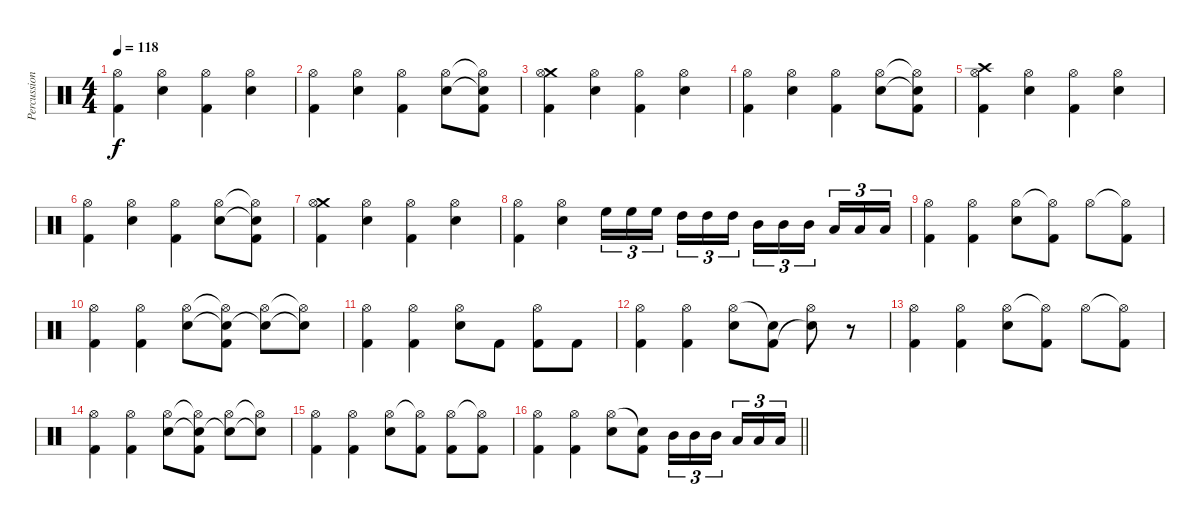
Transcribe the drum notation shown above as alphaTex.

\track ("Percussion" "Percussion") {instrument percussion}
\staff {score}
\articulation defaults
\ts (4 4)
\tempo 118
\clef neutral
\ks c
("Hi-Hat (open)" "Kick (hit) 2").4{dy f} ("Hi-Hat (open)" "Electric Snare (hit)").4 ("Hi-Hat (open)" "Kick (hit) 2").4 ("Hi-Hat (open)" "Electric Snare (hit)").4 |
("Hi-Hat (open)" "Kick (hit) 2").4 ("Hi-Hat (open)" "Electric Snare (hit)").4 ("Hi-Hat (open)" "Kick (hit) 2").4 ("Hi-Hat (open)" "Electric Snare (hit)").8 ("Hi-Hat (open)"{t} "Electric Snare (hit)"{t} "Kick (hit) 2").8 |
("Crash medium (hit)" "Hi-Hat (open)" "Kick (hit) 2").4 ("Hi-Hat (open)" "Electric Snare (hit)").4 ("Hi-Hat (open)" "Kick (hit) 2").4 ("Hi-Hat (open)" "Electric Snare (hit)").4 |
("Hi-Hat (open)" "Kick (hit) 2").4 ("Hi-Hat (open)" "Electric Snare (hit)").4 ("Hi-Hat (open)" "Kick (hit) 2").4 ("Hi-Hat (open)" "Electric Snare (hit)").8 ("Hi-Hat (open)"{t} "Electric Snare (hit)"{t} "Kick (hit) 2").8 |
("Crash high (hit)" "Hi-Hat (open)" "Kick (hit) 2").4 ("Hi-Hat (open)" "Electric Snare (hit)").4 ("Hi-Hat (open)" "Kick (hit) 2").4 ("Hi-Hat (open)" "Electric Snare (hit)").4 |
("Hi-Hat (open)" "Kick (hit) 2").4 ("Hi-Hat (open)" "Electric Snare (hit)").4 ("Hi-Hat (open)" "Kick (hit) 2").4 ("Hi-Hat (open)" "Electric Snare (hit)").8 ("Hi-Hat (open)"{t} "Electric Snare (hit)"{t} "Kick (hit) 2").8 |
("Crash medium (hit)" "Hi-Hat (open)" "Kick (hit) 2").4 ("Hi-Hat (open)" "Electric Snare (hit)").4 ("Hi-Hat (open)" "Kick (hit) 2").4 ("Hi-Hat (open)" "Electric Snare (hit)").4 |
("Hi-Hat (open)" "Kick (hit) 2").4 ("Hi-Hat (open)" "Electric Snare (hit)").4 "High Floor Tom (hit)".16{tu (3 2)} "High Floor Tom (hit)".16{tu (3 2)} "High Floor Tom (hit)".16{tu (3 2) beam splitsecondary} "High Tom (hit)".16{tu (3 2)} "High Tom (hit)".16{tu (3 2)} "High Tom (hit)".16{tu (3 2)} "Mid Tom (hit)".16{tu (3 2)} "Mid Tom (hit)".16{tu (3 2)} "Mid Tom (hit)".16{tu (3 2) beam splitsecondary} "Low Tom (hit)".16{tu (3 2)} "Low Tom (hit)".16{tu (3 2)} "Low Tom (hit)".16{tu (3 2)} |
("Hi-Hat (open)" "Kick (hit) 2").4 ("Hi-Hat (open)" "Kick (hit) 2").4 ("Hi-Hat (open)" "Electric Snare (hit)").8 ("Hi-Hat (open)"{t} "Kick (hit) 2").8 "Hi-Hat (open)".8 ("Hi-Hat (open)"{t} "Kick (hit) 2").8 |
("Hi-Hat (open)" "Kick (hit) 2").4 ("Hi-Hat (open)" "Kick (hit) 2").4 ("Hi-Hat (open)" "Electric Snare (hit)").8 ("Hi-Hat (open)"{t} "Electric Snare (hit)"{t} "Kick (hit) 2").8 ("Hi-Hat (open)" "Electric Snare (hit)"{t}).8 ("Hi-Hat (open)"{t} "Electric Snare (hit)"{t}).8 |
("Hi-Hat (open)" "Kick (hit) 2").4 ("Hi-Hat (open)" "Kick (hit) 2").4 ("Hi-Hat (open)" "Electric Snare (hit)").8 "Kick (hit) 2".8 ("Hi-Hat (open)" "Kick (hit) 2").8 "Kick (hit) 2".8 |
("Hi-Hat (open)" "Kick (hit) 2").4 ("Hi-Hat (open)" "Kick (hit) 2").4 ("Hi-Hat (open)" "Electric Snare (hit)").8 ("Electric Snare (hit)"{t} "Kick (hit) 2").8 ("Hi-Hat (open)" "Electric Snare (hit)"{t}).8 r.8 |
("Hi-Hat (open)" "Kick (hit) 2").4 ("Hi-Hat (open)" "Kick (hit) 2").4 ("Hi-Hat (open)" "Electric Snare (hit)").8 ("Hi-Hat (open)"{t} "Kick (hit) 2").8 "Hi-Hat (open)".8 ("Hi-Hat (open)"{t} "Kick (hit) 2").8 |
("Hi-Hat (open)" "Kick (hit) 2").4 ("Hi-Hat (open)" "Kick (hit) 2").4 ("Hi-Hat (open)" "Electric Snare (hit)").8 ("Hi-Hat (open)"{t} "Electric Snare (hit)"{t} "Kick (hit) 2").8 ("Hi-Hat (open)" "Electric Snare (hit)"{t}).8 ("Hi-Hat (open)"{t} "Electric Snare (hit)"{t}).8 |
("Hi-Hat (open)" "Kick (hit) 2").4 ("Hi-Hat (open)" "Kick (hit) 2").4 ("Hi-Hat (open)" "Electric Snare (hit)").8 ("Hi-Hat (open)"{t} "Kick (hit) 2").8 ("Hi-Hat (open)" "Kick (hit) 2").8 ("Hi-Hat (open)"{t} "Kick (hit) 2").8 |
\barLineRight lightlight
("Hi-Hat (open)" "Kick (hit) 2").4 ("Hi-Hat (open)" "Kick (hit) 2").4 ("Hi-Hat (open)" "Electric Snare (hit)").8 ("Electric Snare (hit)"{t} "Kick (hit) 2").8 "Mid Tom (hit)".16{tu (3 2)} "Mid Tom (hit)".16{tu (3 2)} "Mid Tom (hit)".16{tu (3 2) beam splitsecondary} "Low Tom (hit)".16{tu (3 2)} "Low Tom (hit)".16{tu (3 2)} "Low Tom (hit)".16{tu (3 2)}
